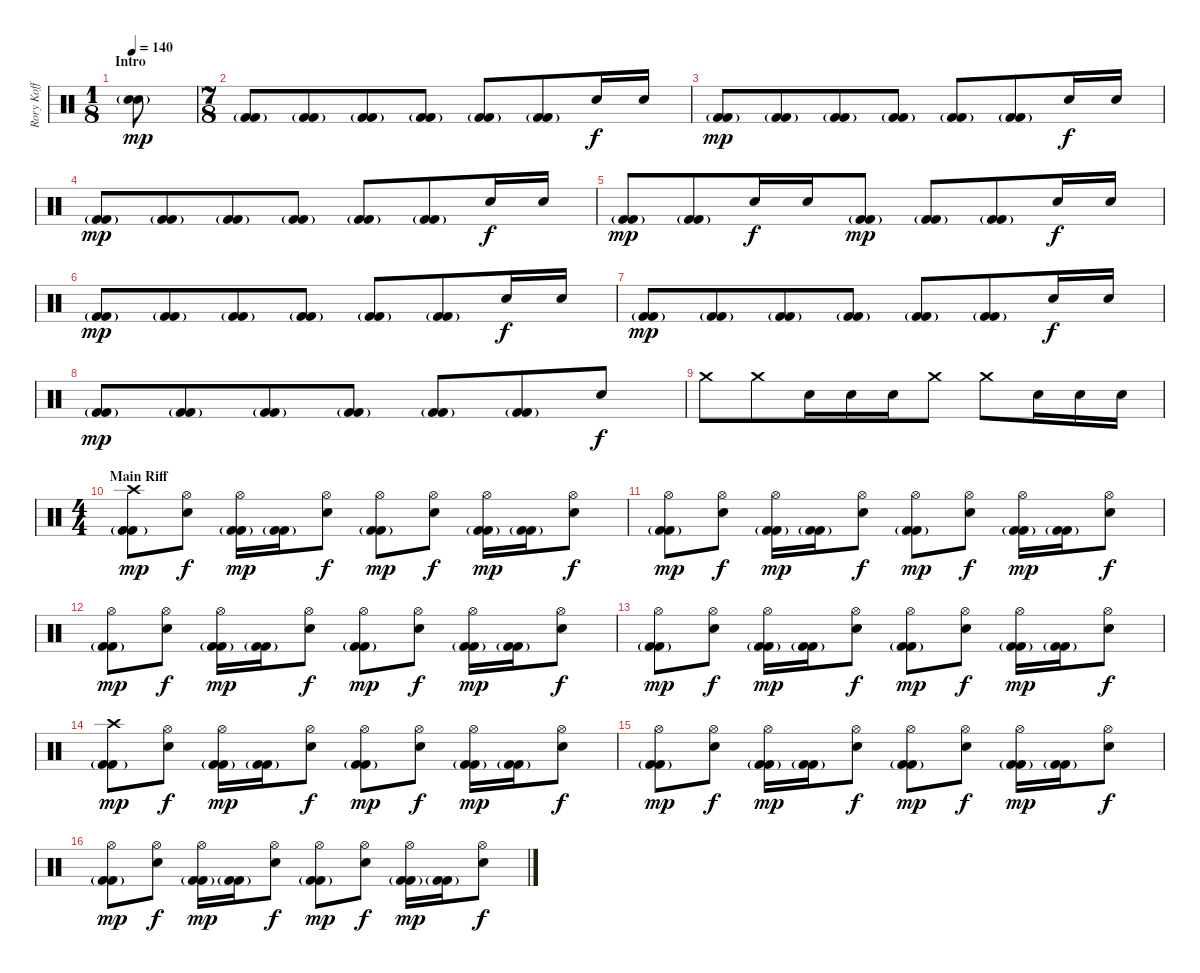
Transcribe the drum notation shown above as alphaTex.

\track ("Rory Koff" "Rory Koff") {instrument percussion}
\staff {score}
\articulation defaults
\ts (1 8)
\section ("" "Intro")
\tempo 140
\clef neutral
\ks c
("Snare (hit) 2"{g} "Snare (hit) 2").8{dy mp} |
\ts (7 8)
("Kick (hit) 2"{g} "Kick (hit) 2").8 ("Kick (hit) 2"{g} "Kick (hit) 2").8 ("Kick (hit) 2"{g} "Kick (hit) 2").8 ("Kick (hit) 2"{g} "Kick (hit) 2").8 ("Kick (hit) 2"{g} "Kick (hit) 2").8 ("Kick (hit) 2"{g} "Kick (hit) 2").8 "Snare (hit) 2".16{dy f} "Snare (hit) 2".16 |
("Kick (hit) 2"{g} "Kick (hit) 2").8{dy mp} ("Kick (hit) 2"{g} "Kick (hit) 2").8 ("Kick (hit) 2"{g} "Kick (hit) 2").8 ("Kick (hit) 2"{g} "Kick (hit) 2").8 ("Kick (hit) 2"{g} "Kick (hit) 2").8 ("Kick (hit) 2"{g} "Kick (hit) 2").8 "Snare (hit) 2".16{dy f} "Snare (hit) 2".16 |
("Kick (hit) 2"{g} "Kick (hit) 2").8{dy mp} ("Kick (hit) 2"{g} "Kick (hit) 2").8 ("Kick (hit) 2"{g} "Kick (hit) 2").8 ("Kick (hit) 2"{g} "Kick (hit) 2").8 ("Kick (hit) 2"{g} "Kick (hit) 2").8 ("Kick (hit) 2"{g} "Kick (hit) 2").8 "Snare (hit) 2".16{dy f} "Snare (hit) 2".16 |
("Kick (hit) 2"{g} "Kick (hit) 2").8{dy mp} ("Kick (hit) 2"{g} "Kick (hit) 2").8 "Snare (hit) 2".16{dy f} "Snare (hit) 2".16 ("Kick (hit) 2"{g} "Kick (hit) 2").8{dy mp} ("Kick (hit) 2"{g} "Kick (hit) 2").8 ("Kick (hit) 2"{g} "Kick (hit) 2").8 "Snare (hit) 2".16{dy f} "Snare (hit) 2".16 |
("Kick (hit) 2"{g} "Kick (hit) 2").8{dy mp} ("Kick (hit) 2"{g} "Kick (hit) 2").8 ("Kick (hit) 2"{g} "Kick (hit) 2").8 ("Kick (hit) 2"{g} "Kick (hit) 2").8 ("Kick (hit) 2"{g} "Kick (hit) 2").8 ("Kick (hit) 2"{g} "Kick (hit) 2").8 "Snare (hit) 2".16{dy f} "Snare (hit) 2".16 |
("Kick (hit) 2"{g} "Kick (hit) 2").8{dy mp} ("Kick (hit) 2"{g} "Kick (hit) 2").8 ("Kick (hit) 2"{g} "Kick (hit) 2").8 ("Kick (hit) 2"{g} "Kick (hit) 2").8 ("Kick (hit) 2"{g} "Kick (hit) 2").8 ("Kick (hit) 2"{g} "Kick (hit) 2").8 "Snare (hit) 2".16{dy f} "Snare (hit) 2".16 |
("Kick (hit) 2"{g} "Kick (hit) 2").8{dy mp} ("Kick (hit) 2"{g} "Kick (hit) 2").8 ("Kick (hit) 2"{g} "Kick (hit) 2").8 ("Kick (hit) 2"{g} "Kick (hit) 2").8 ("Kick (hit) 2"{g} "Kick (hit) 2").8 ("Kick (hit) 2"{g} "Kick (hit) 2").8 "Snare (hit) 2".8{dy f} |
"Crash medium (hit)".8 "Crash medium (hit)".8 "Snare (hit) 2".16 "Snare (hit) 2".16 "Snare (hit) 2".16 "Crash medium (hit)".8 "Crash medium (hit)".8 "Snare (hit) 2".16 "Snare (hit) 2".16 "Snare (hit) 2".16 |
\ts (4 4)
\section ("" "Main Riff")
("Crash high (hit)" "Kick (hit) 2"{g} "Kick (hit) 2").8{dy mp} ("Hi-Hat (open)" "Snare (hit) 2").8{dy f} ("Hi-Hat (open)" "Kick (hit) 2"{g} "Kick (hit) 2").16{dy mp} ("Kick (hit) 2"{g} "Kick (hit) 2").16 ("Hi-Hat (open)" "Snare (hit) 2").8{dy f} ("Hi-Hat (open)" "Kick (hit) 2"{g} "Kick (hit) 2").8{dy mp} ("Hi-Hat (open)" "Snare (hit) 2").8{dy f} ("Hi-Hat (open)" "Kick (hit) 2"{g} "Kick (hit) 2").16{dy mp} ("Kick (hit) 2"{g} "Kick (hit) 2").16 ("Hi-Hat (open)" "Snare (hit) 2").8{dy f} |
("Hi-Hat (open)" "Kick (hit) 2"{g} "Kick (hit) 2").8{dy mp} ("Hi-Hat (open)" "Snare (hit) 2").8{dy f} ("Hi-Hat (open)" "Kick (hit) 2"{g} "Kick (hit) 2").16{dy mp} ("Kick (hit) 2"{g} "Kick (hit) 2").16 ("Hi-Hat (open)" "Snare (hit) 2").8{dy f} ("Hi-Hat (open)" "Kick (hit) 2"{g} "Kick (hit) 2").8{dy mp} ("Hi-Hat (open)" "Snare (hit) 2").8{dy f} ("Hi-Hat (open)" "Kick (hit) 2"{g} "Kick (hit) 2").16{dy mp} ("Kick (hit) 2"{g} "Kick (hit) 2").16 ("Hi-Hat (open)" "Snare (hit) 2").8{dy f} |
("Hi-Hat (open)" "Kick (hit) 2"{g} "Kick (hit) 2").8{dy mp} ("Hi-Hat (open)" "Snare (hit) 2").8{dy f} ("Hi-Hat (open)" "Kick (hit) 2"{g} "Kick (hit) 2").16{dy mp} ("Kick (hit) 2"{g} "Kick (hit) 2").16 ("Hi-Hat (open)" "Snare (hit) 2").8{dy f} ("Hi-Hat (open)" "Kick (hit) 2"{g} "Kick (hit) 2").8{dy mp} ("Hi-Hat (open)" "Snare (hit) 2").8{dy f} ("Hi-Hat (open)" "Kick (hit) 2"{g} "Kick (hit) 2").16{dy mp} ("Kick (hit) 2"{g} "Kick (hit) 2").16 ("Hi-Hat (open)" "Snare (hit) 2").8{dy f} |
("Hi-Hat (open)" "Kick (hit) 2"{g} "Kick (hit) 2").8{dy mp} ("Hi-Hat (open)" "Snare (hit) 2").8{dy f} ("Hi-Hat (open)" "Kick (hit) 2"{g} "Kick (hit) 2").16{dy mp} ("Kick (hit) 2"{g} "Kick (hit) 2").16 ("Hi-Hat (open)" "Snare (hit) 2").8{dy f} ("Hi-Hat (open)" "Kick (hit) 2"{g} "Kick (hit) 2").8{dy mp} ("Hi-Hat (open)" "Snare (hit) 2").8{dy f} ("Hi-Hat (open)" "Kick (hit) 2"{g} "Kick (hit) 2").16{dy mp} ("Kick (hit) 2"{g} "Kick (hit) 2").16 ("Hi-Hat (open)" "Snare (hit) 2").8{dy f} |
("Crash high (hit)" "Kick (hit) 2"{g} "Kick (hit) 2").8{dy mp} ("Hi-Hat (open)" "Snare (hit) 2").8{dy f} ("Hi-Hat (open)" "Kick (hit) 2"{g} "Kick (hit) 2").16{dy mp} ("Kick (hit) 2"{g} "Kick (hit) 2").16 ("Hi-Hat (open)" "Snare (hit) 2").8{dy f} ("Hi-Hat (open)" "Kick (hit) 2"{g} "Kick (hit) 2").8{dy mp} ("Hi-Hat (open)" "Snare (hit) 2").8{dy f} ("Hi-Hat (open)" "Kick (hit) 2"{g} "Kick (hit) 2").16{dy mp} ("Kick (hit) 2"{g} "Kick (hit) 2").16 ("Hi-Hat (open)" "Snare (hit) 2").8{dy f} |
("Hi-Hat (open)" "Kick (hit) 2"{g} "Kick (hit) 2").8{dy mp} ("Hi-Hat (open)" "Snare (hit) 2").8{dy f} ("Hi-Hat (open)" "Kick (hit) 2"{g} "Kick (hit) 2").16{dy mp} ("Kick (hit) 2"{g} "Kick (hit) 2").16 ("Hi-Hat (open)" "Snare (hit) 2").8{dy f} ("Hi-Hat (open)" "Kick (hit) 2"{g} "Kick (hit) 2").8{dy mp} ("Hi-Hat (open)" "Snare (hit) 2").8{dy f} ("Hi-Hat (open)" "Kick (hit) 2"{g} "Kick (hit) 2").16{dy mp} ("Kick (hit) 2"{g} "Kick (hit) 2").16 ("Hi-Hat (open)" "Snare (hit) 2").8{dy f} |
("Hi-Hat (open)" "Kick (hit) 2"{g} "Kick (hit) 2").8{dy mp} ("Hi-Hat (open)" "Snare (hit) 2").8{dy f} ("Hi-Hat (open)" "Kick (hit) 2"{g} "Kick (hit) 2").16{dy mp} ("Kick (hit) 2"{g} "Kick (hit) 2").16 ("Hi-Hat (open)" "Snare (hit) 2").8{dy f} ("Hi-Hat (open)" "Kick (hit) 2"{g} "Kick (hit) 2").8{dy mp} ("Hi-Hat (open)" "Snare (hit) 2").8{dy f} ("Hi-Hat (open)" "Kick (hit) 2"{g} "Kick (hit) 2").16{dy mp} ("Kick (hit) 2"{g} "Kick (hit) 2").16 ("Hi-Hat (open)" "Snare (hit) 2").8{dy f}
